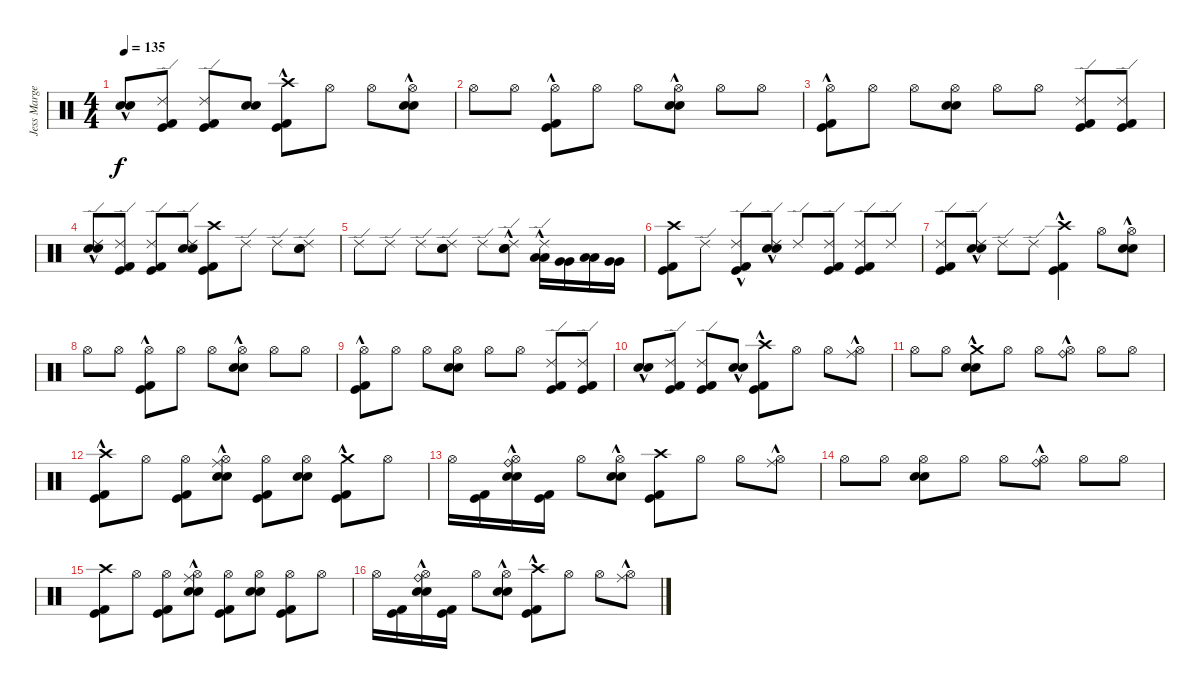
\track ("Jess Margera" "Jess Marge") {instrument percussion}
\staff {score}
\articulation defaults
\ts (4 4)
\tempo 135
\clef neutral
\ks c
("Electric Snare (hit)"{hac} "Electric Snare (hit)"{hac}).8{dy f} ("Kick (hit)" "Kick (hit) 2" "Ride (edge) 2").8 ("Kick (hit)" "Kick (hit) 2" "Ride (edge) 2").8 ("Electric Snare (hit)" "Electric Snare (hit)").8 ("Kick (hit)"{hac} "Kick (hit) 2"{hac} "Crash high (hit)").8 "Hi-Hat (open)".8 "Hi-Hat (open)".8 ("Electric Snare (hit)"{hac} "Electric Snare (hit)"{hac} "Hi-Hat (open)").8 |
"Hi-Hat (open)".8 "Hi-Hat (open)".8 ("Kick (hit)"{hac} "Kick (hit) 2"{hac} "Hi-Hat (open)").8 "Hi-Hat (open)".8 "Hi-Hat (open)".8 ("Electric Snare (hit)"{hac} "Electric Snare (hit)"{hac} "Hi-Hat (open)").8 "Hi-Hat (open)".8 "Hi-Hat (open)".8 |
("Kick (hit)"{hac} "Kick (hit) 2"{hac} "Hi-Hat (open)").8 "Hi-Hat (open)".8 "Hi-Hat (open)".8 ("Electric Snare (hit)" "Electric Snare (hit)" "Hi-Hat (open)").8 "Hi-Hat (open)".8 "Hi-Hat (open)".8 ("Kick (hit)" "Kick (hit) 2" "Ride (edge) 2").8 ("Kick (hit)" "Kick (hit) 2" "Ride (edge) 2").8 |
("Electric Snare (hit)"{hac} "Electric Snare (hit)"{hac} "Ride (edge) 2").8 ("Kick (hit)" "Kick (hit) 2" "Ride (edge) 2").8 ("Kick (hit)" "Kick (hit) 2" "Ride (edge) 2").8 ("Electric Snare (hit)" "Electric Snare (hit)" "Ride (edge) 2").8 ("Kick (hit)" "Kick (hit) 2" "Crash high (hit)").8 "Ride (edge) 2".8 "Ride (edge) 2".8 ("Electric Snare (hit)" "Electric Snare (hit)" "Ride (edge) 2").8 |
"Ride (edge) 2".8 "Ride (edge) 2".8 "Ride (edge) 2".8 ("Electric Snare (hit)" "Electric Snare (hit)" "Ride (edge) 2").8 "Ride (edge) 2".8 ("Electric Snare (hit)"{hac} "Electric Snare (hit)"{hac} "Ride (edge) 2").8 ("Low Tom (hit)" "Low Tom (hit)" "Ride (edge) 2"{hac}).16 ("Very Low Tom (hit)" "Very Low Tom (hit)").16 ("Low Tom (hit)" "Low Tom (hit)").16 ("Very Low Tom (hit)" "Very Low Tom (hit)").16 |
("Kick (hit)" "Kick (hit) 2" "Crash high (hit)").8 "Ride (edge) 2".8 ("Kick (hit)"{hac} "Kick (hit) 2"{hac} "Ride (edge) 2").8 ("Electric Snare (hit)"{hac} "Electric Snare (hit)"{hac} "Ride (edge) 2").8 "Ride (edge) 2".8 ("Kick (hit)" "Kick (hit) 2" "Ride (edge) 2").8 ("Kick (hit)" "Kick (hit) 2" "Ride (edge) 2").8 "Ride (edge) 2".8 |
("Kick (hit)" "Kick (hit) 2" "Ride (edge) 2").8 ("Electric Snare (hit)"{hac} "Electric Snare (hit)"{hac} "Ride (edge) 2").8 "Ride (edge) 2".8 "Ride (edge) 2".8 ("Kick (hit)"{hac} "Kick (hit) 2"{hac} "Crash high (hit)").4 "Hi-Hat (open)".8 ("Electric Snare (hit)"{hac} "Electric Snare (hit)"{hac} "Hi-Hat (open)").8 |
"Hi-Hat (open)".8 "Hi-Hat (open)".8 ("Kick (hit)"{hac} "Kick (hit) 2"{hac} "Hi-Hat (open)").8 "Hi-Hat (open)".8 "Hi-Hat (open)".8 ("Electric Snare (hit)"{hac} "Electric Snare (hit)"{hac} "Hi-Hat (open)").8 "Hi-Hat (open)".8 "Hi-Hat (open)".8 |
("Kick (hit)"{hac} "Kick (hit) 2"{hac} "Hi-Hat (open)").8 "Hi-Hat (open)".8 "Hi-Hat (open)".8 ("Electric Snare (hit)" "Electric Snare (hit)" "Hi-Hat (open)").8 "Hi-Hat (open)".8 "Hi-Hat (open)".8 ("Kick (hit)" "Kick (hit) 2" "Ride (edge) 2").8 ("Kick (hit)" "Kick (hit) 2" "Ride (edge) 2").8 |
("Electric Snare (hit)"{hac} "Electric Snare (hit)"{hac}).8 ("Kick (hit)" "Kick (hit) 2" "Ride (edge) 2").8 ("Kick (hit)" "Kick (hit) 2" "Ride (edge) 2").8 ("Electric Snare (hit)"{hac} "Electric Snare (hit)"{hac}).8 ("Kick (hit)" "Kick (hit) 2" "Crash high (hit)"{hac}).8 "Hi-Hat (open)".8 "Hi-Hat (open)".8 ("Hi-Hat (open)" "Ride (middle)"{hac}).8 |
"Hi-Hat (open)".8 "Hi-Hat (open)".8 ("Electric Snare (hit)" "Electric Snare (hit)" "Crash medium (hit)"{hac}).8 "Hi-Hat (open)".8 "Hi-Hat (open)".8 ("Hi-Hat (open)" "Ride (bell)"{hac}).8 "Hi-Hat (open)".8 "Hi-Hat (open)".8 |
("Kick (hit)" "Kick (hit) 2" "Crash high (hit)"{hac}).8 "Hi-Hat (open)".8 ("Kick (hit)" "Kick (hit) 2" "Hi-Hat (open)").8 ("Electric Snare (hit)" "Electric Snare (hit)" "Hi-Hat (open)" "Ride (middle)"{hac}).8 ("Kick (hit)" "Kick (hit) 2" "Hi-Hat (open)").8 ("Electric Snare (hit)" "Electric Snare (hit)" "Hi-Hat (open)").8 ("Kick (hit)" "Kick (hit) 2" "Crash medium (hit)"{hac}).8 "Hi-Hat (open)".8 |
"Hi-Hat (open)".16 ("Kick (hit)" "Kick (hit) 2").16 ("Electric Snare (hit)" "Electric Snare (hit)" "Hi-Hat (open)" "Ride (bell)"{hac}).16 ("Kick (hit)" "Kick (hit) 2").16 "Hi-Hat (open)".8 ("Electric Snare (hit)"{hac} "Electric Snare (hit)"{hac} "Hi-Hat (open)").8 ("Kick (hit)" "Kick (hit) 2" "Crash high (hit)").8 "Hi-Hat (open)".8 "Hi-Hat (open)".8 ("Hi-Hat (open)" "Ride (middle)"{hac}).8 |
"Hi-Hat (open)".8 "Hi-Hat (open)".8 ("Electric Snare (hit)" "Electric Snare (hit)" "Hi-Hat (open)").8 "Hi-Hat (open)".8 "Hi-Hat (open)".8 ("Hi-Hat (open)" "Ride (bell)"{hac}).8 "Hi-Hat (open)".8 "Hi-Hat (open)".8 |
("Kick (hit)" "Kick (hit) 2" "Crash high (hit)").8 "Hi-Hat (open)".8 ("Kick (hit)" "Kick (hit) 2" "Hi-Hat (open)").8 ("Electric Snare (hit)" "Electric Snare (hit)" "Hi-Hat (open)" "Ride (middle)"{hac}).8 ("Kick (hit)" "Kick (hit) 2" "Hi-Hat (open)").8 ("Electric Snare (hit)" "Electric Snare (hit)" "Hi-Hat (open)").8 ("Kick (hit)" "Kick (hit) 2" "Hi-Hat (open)").8 "Hi-Hat (open)".8 |
"Hi-Hat (open)".16 ("Kick (hit)" "Kick (hit) 2").16 ("Electric Snare (hit)" "Electric Snare (hit)" "Hi-Hat (open)" "Ride (bell)"{hac}).16 ("Kick (hit)" "Kick (hit) 2").16 "Hi-Hat (open)".8 ("Electric Snare (hit)"{hac} "Electric Snare (hit)"{hac} "Hi-Hat (open)").8 ("Kick (hit)" "Kick (hit) 2" "Crash high (hit)"{hac}).8 "Hi-Hat (open)".8 "Hi-Hat (open)".8 ("Hi-Hat (open)" "Ride (middle)"{hac}).8
